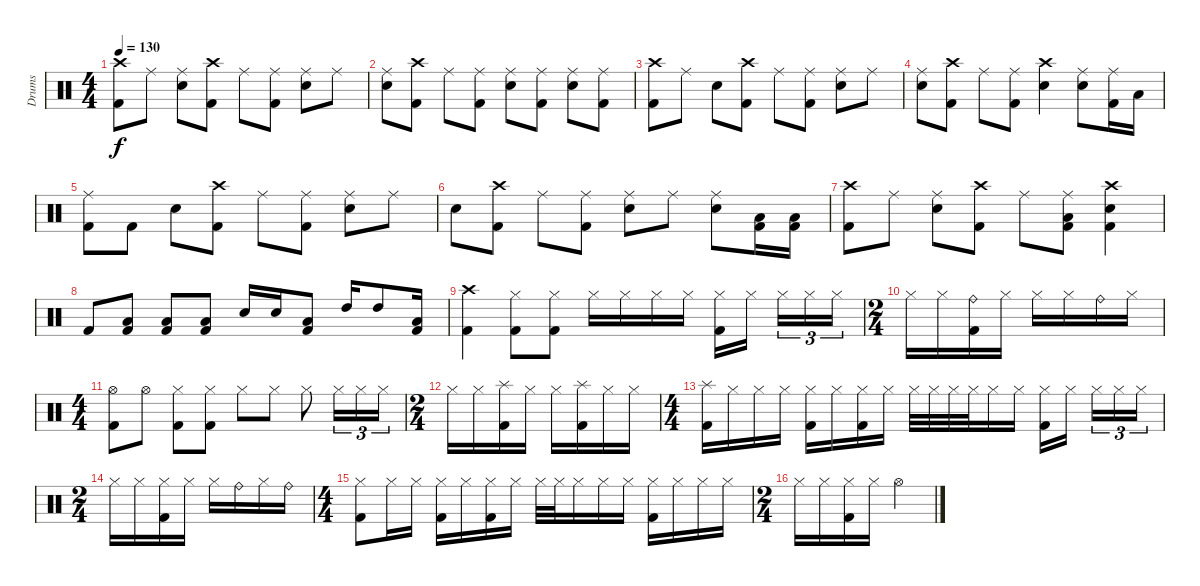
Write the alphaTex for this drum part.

\track ("Drums" "Drums") {instrument percussion}
\staff {score}
\articulation defaults
\ts (4 4)
\tempo 130
\clef neutral
\ks c
("Crash high (hit)" "Kick (hit) 2").8{dy f} "Ride (middle)".8 ("Ride (middle)" "Snare (hit) 2").8 ("Crash high (hit)" "Kick (hit) 2").8 "Ride (middle)".8 ("Ride (middle)" "Kick (hit) 2").8 ("Ride (middle)" "Snare (hit) 2").8 "Ride (middle)".8 |
("Ride (middle)" "Snare (hit) 2").8 ("Crash high (hit)" "Kick (hit) 2").8 "Ride (middle)".8 ("Ride (middle)" "Kick (hit) 2").8 ("Ride (middle)" "Snare (hit) 2").8 ("Ride (middle)" "Kick (hit) 2").8 ("Ride (middle)" "Snare (hit) 2").8 ("Ride (middle)" "Kick (hit) 2").8 |
("Crash high (hit)" "Kick (hit) 2").8 "Ride (middle)".8 "Snare (hit) 2".8 ("Crash high (hit)" "Kick (hit) 2").8 "Ride (middle)".8 ("Ride (middle)" "Kick (hit) 2").8 ("Ride (middle)" "Snare (hit) 2").8 "Ride (middle)".8 |
("Ride (middle)" "Snare (hit) 2").8 ("Crash high (hit)" "Kick (hit) 2").8 "Ride (middle)".8 ("Ride (middle)" "Kick (hit) 2").8 ("Crash high (hit)" "Snare (hit) 2").4 ("Ride (middle)" "Snare (hit) 2").8 ("Ride (middle)" "Kick (hit) 2").16 "Low Tom (hit)".16 |
("Ride (middle)" "Kick (hit) 2").8 "Kick (hit) 2".8 "Snare (hit) 2".8 ("Crash high (hit)" "Kick (hit) 2").8 "Ride (middle)".8 ("Ride (middle)" "Kick (hit) 2").8 ("Ride (middle)" "Snare (hit) 2").8 "Ride (middle)".8 |
"Snare (hit) 2".8 ("Crash high (hit)" "Kick (hit) 2").8 "Ride (middle)".8 ("Ride (middle)" "Kick (hit) 2").8 ("Ride (middle)" "Snare (hit) 2").8 "Ride (middle)".8 ("Ride (middle)" "Snare (hit) 2").8 ("Low Floor Tom (hit)" "Kick (hit) 2").16 ("Low Floor Tom (hit)" "Kick (hit) 2").16 |
("Crash high (hit)" "Kick (hit) 2").8 "Ride (middle)".8 ("Ride (middle)" "Snare (hit) 2").8 ("Crash high (hit)" "Kick (hit) 2").8 "Ride (middle)".8 ("Ride (middle)" "Low Floor Tom (hit)" "Kick (hit) 2").8 ("Crash high (hit)" "Snare (hit) 2" "Kick (hit) 2").4 |
"Kick (hit) 2".8{volume 2} ("Low Floor Tom (hit)" "Kick (hit) 2").8{volume 16} ("Low Floor Tom (hit)" "Kick (hit) 2").8 ("Low Floor Tom (hit)" "Kick (hit) 2").8 "Snare (hit) 2".16 "Snare (hit) 2".16 ("Low Floor Tom (hit)" "Kick (hit) 2").8 "High Tom (hit)".16 "High Tom (hit)".8 ("Low Floor Tom (hit)" "Kick (hit) 2").16 |
("Crash high (hit)" "Kick (hit) 2").4 ("Hi-Hat (closed)" "Kick (hit) 2").8 ("Hi-Hat (closed)" "Kick (hit) 2").8 "Hi-Hat (closed)".16 "Hi-Hat (closed)".16 "Hi-Hat (closed)".16 "Hi-Hat (closed)".16 ("Hi-Hat (closed)" "Kick (hit) 2").16 "Hi-Hat (closed)".16 "Hi-Hat (closed)".16{tu (3 2)} "Hi-Hat (closed)".16{tu (3 2)} "Hi-Hat (closed)".16{tu (3 2)} |
\ts (2 4)
"Hi-Hat (closed)".16 "Hi-Hat (closed)".16 ("Ride (bell)" "Kick (hit) 2").16 "Hi-Hat (closed)".16 "Hi-Hat (closed)".16 "Hi-Hat (closed)".16 "Ride (bell)".16 "Hi-Hat (closed)".16 |
\ts (4 4)
("Hi-Hat (open)" "Kick (hit) 2").8 "Hi-Hat (open)".8 ("Hi-Hat (closed)" "Kick (hit) 2").8 ("Hi-Hat (closed)" "Kick (hit) 2").8 "Hi-Hat (closed)".8 "Hi-Hat (closed)".8 "Hi-Hat (closed)".8 "Hi-Hat (closed)".16{tu (3 2)} "Hi-Hat (closed)".16{tu (3 2)} "Hi-Hat (closed)".16{tu (3 2)} |
\ts (2 4)
"Hi-Hat (closed)".16 "Hi-Hat (closed)".16 ("Splash (hit)" "Kick (hit) 2").16 "Hi-Hat (closed)".16 "Hi-Hat (closed)".16 ("Splash (hit)" "Kick (hit) 2").16 "Hi-Hat (closed)".16 "Hi-Hat (closed)".16 |
\ts (4 4)
("Splash (hit)" "Kick (hit) 2").16 "Hi-Hat (closed)".16 "Hi-Hat (closed)".16 "Hi-Hat (closed)".16 ("Hi-Hat (closed)" "Kick (hit) 2").16 "Hi-Hat (closed)".16 ("Hi-Hat (closed)" "Kick (hit) 2").16 "Hi-Hat (closed)".16 "Hi-Hat (closed)".32 "Hi-Hat (closed)".32 "Hi-Hat (closed)".32 "Hi-Hat (closed)".32 "Hi-Hat (closed)".16 "Hi-Hat (closed)".16 ("Hi-Hat (closed)" "Kick (hit) 2").16 "Hi-Hat (closed)".16 "Hi-Hat (closed)".16{tu (3 2)} "Hi-Hat (closed)".16{tu (3 2)} "Hi-Hat (closed)".16{tu (3 2)} |
\ts (2 4)
"Hi-Hat (closed)".16 "Hi-Hat (closed)".16 ("Hi-Hat (closed)" "Kick (hit) 2").16 "Hi-Hat (closed)".16 "Hi-Hat (closed)".16 "Ride (bell)".16 "Hi-Hat (closed)".16 "Ride (bell)".16 |
\ts (4 4)
("Hi-Hat (closed)" "Kick (hit) 2").8 "Hi-Hat (closed)".16 "Hi-Hat (closed)".16 ("Hi-Hat (closed)" "Kick (hit) 2").16 "Hi-Hat (closed)".16 ("Hi-Hat (closed)" "Kick (hit) 2").16 "Hi-Hat (closed)".16 "Hi-Hat (closed)".32 "Hi-Hat (closed)".32 "Hi-Hat (closed)".16 "Hi-Hat (closed)".16 "Hi-Hat (closed)".16 ("Hi-Hat (closed)" "Kick (hit) 2").16 "Hi-Hat (closed)".16 "Hi-Hat (closed)".16 "Hi-Hat (closed)".16 |
\ts (2 4)
"Hi-Hat (closed)".16 "Hi-Hat (closed)".16 ("Hi-Hat (closed)" "Kick (hit) 2").16 "Hi-Hat (closed)".16 "Hi-Hat (open)".4
